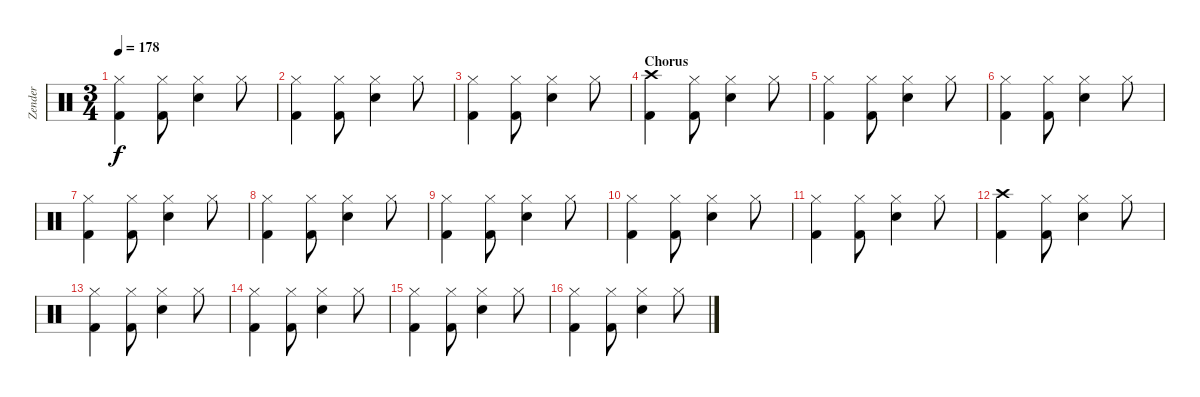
\track ("Zender" "Zender") {instrument percussion}
\staff {score}
\articulation defaults
\ts (3 4)
\tempo 178
\clef neutral
\ks c
("Hi-Hat (closed)" "Kick (hit) 2").4{dy f} ("Hi-Hat (closed)" "Kick (hit) 2").8 ("Electric Snare (hit)" "Hi-Hat (closed)").4 "Hi-Hat (closed)".8 |
("Hi-Hat (closed)" "Kick (hit) 2").4 ("Hi-Hat (closed)" "Kick (hit) 2").8 ("Electric Snare (hit)" "Hi-Hat (closed)").4 "Hi-Hat (closed)".8 |
("Hi-Hat (closed)" "Kick (hit) 2").4 ("Hi-Hat (closed)" "Kick (hit) 2").8 ("Electric Snare (hit)" "Hi-Hat (closed)").4 "Hi-Hat (closed)".8 |
\section ("" "Chorus")
("Crash high (hit)" "Kick (hit) 2").4 ("Hi-Hat (closed)" "Kick (hit) 2").8 ("Electric Snare (hit)" "Hi-Hat (closed)").4 "Hi-Hat (closed)".8 |
("Hi-Hat (closed)" "Kick (hit) 2").4 ("Hi-Hat (closed)" "Kick (hit) 2").8 ("Electric Snare (hit)" "Hi-Hat (closed)").4 "Hi-Hat (closed)".8 |
("Hi-Hat (closed)" "Kick (hit) 2").4 ("Hi-Hat (closed)" "Kick (hit) 2").8 ("Electric Snare (hit)" "Hi-Hat (closed)").4 "Hi-Hat (closed)".8 |
("Hi-Hat (closed)" "Kick (hit) 2").4 ("Hi-Hat (closed)" "Kick (hit) 2").8 ("Electric Snare (hit)" "Hi-Hat (closed)").4 "Hi-Hat (closed)".8 |
("Hi-Hat (closed)" "Kick (hit) 2").4 ("Hi-Hat (closed)" "Kick (hit) 2").8 ("Electric Snare (hit)" "Hi-Hat (closed)").4 "Hi-Hat (closed)".8 |
("Hi-Hat (closed)" "Kick (hit) 2").4 ("Hi-Hat (closed)" "Kick (hit) 2").8 ("Electric Snare (hit)" "Hi-Hat (closed)").4 "Hi-Hat (closed)".8 |
("Hi-Hat (closed)" "Kick (hit) 2").4 ("Hi-Hat (closed)" "Kick (hit) 2").8 ("Electric Snare (hit)" "Hi-Hat (closed)").4 "Hi-Hat (closed)".8 |
("Hi-Hat (closed)" "Kick (hit) 2").4 ("Hi-Hat (closed)" "Kick (hit) 2").8 ("Electric Snare (hit)" "Hi-Hat (closed)").4 "Hi-Hat (closed)".8 |
("Crash high (hit)" "Kick (hit) 2").4 ("Hi-Hat (closed)" "Kick (hit) 2").8 ("Electric Snare (hit)" "Hi-Hat (closed)").4 "Hi-Hat (closed)".8 |
("Hi-Hat (closed)" "Kick (hit) 2").4 ("Hi-Hat (closed)" "Kick (hit) 2").8 ("Electric Snare (hit)" "Hi-Hat (closed)").4 "Hi-Hat (closed)".8 |
("Hi-Hat (closed)" "Kick (hit) 2").4 ("Hi-Hat (closed)" "Kick (hit) 2").8 ("Electric Snare (hit)" "Hi-Hat (closed)").4 "Hi-Hat (closed)".8 |
("Hi-Hat (closed)" "Kick (hit) 2").4 ("Hi-Hat (closed)" "Kick (hit) 2").8 ("Electric Snare (hit)" "Hi-Hat (closed)").4 "Hi-Hat (closed)".8 |
("Hi-Hat (closed)" "Kick (hit) 2").4 ("Hi-Hat (closed)" "Kick (hit) 2").8 ("Electric Snare (hit)" "Hi-Hat (closed)").4 "Hi-Hat (closed)".8
